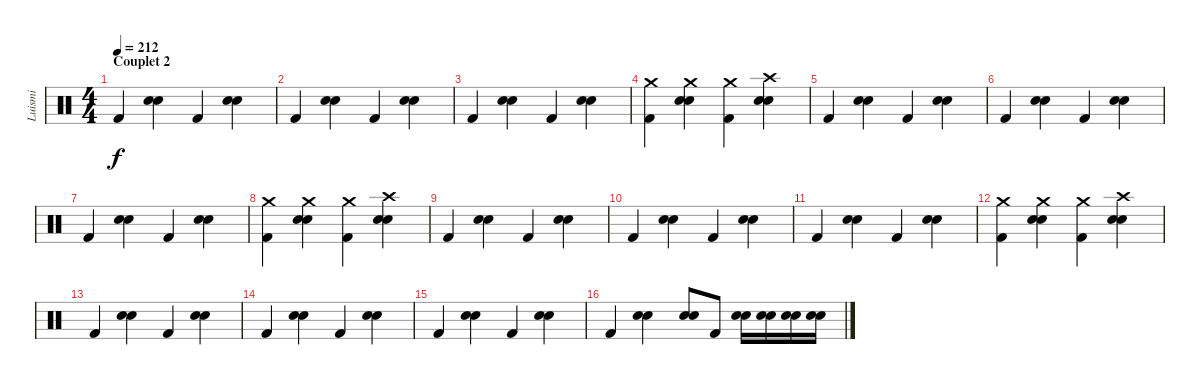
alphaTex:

\track ("Luismi" "Luismi") {instrument percussion}
\staff {score}
\articulation defaults
\ts (4 4)
\section ("" "Couplet 2")
\tempo 212
\clef neutral
\ks c "Kick (hit) 2".4{dy f}
("Electric Snare (hit)" "Snare (hit) 2").4 "Kick (hit) 2".4 ("Electric Snare (hit)" "Snare (hit) 2").4 |
"Kick (hit) 2".4 ("Electric Snare (hit)" "Snare (hit) 2").4 "Kick (hit) 2".4 ("Electric Snare (hit)" "Snare (hit) 2").4 |
"Kick (hit) 2".4 ("Electric Snare (hit)" "Snare (hit) 2").4 "Kick (hit) 2".4 ("Electric Snare (hit)" "Snare (hit) 2").4 |
("Crash medium (hit)" "Kick (hit) 2").4 ("Crash medium (hit)" "Electric Snare (hit)" "Snare (hit) 2").4 ("Crash medium (hit)" "Kick (hit) 2").4 ("Crash high (hit)" "Electric Snare (hit)" "Snare (hit) 2").4 |
"Kick (hit) 2".4 ("Electric Snare (hit)" "Snare (hit) 2").4 "Kick (hit) 2".4 ("Electric Snare (hit)" "Snare (hit) 2").4 |
"Kick (hit) 2".4 ("Electric Snare (hit)" "Snare (hit) 2").4 "Kick (hit) 2".4 ("Electric Snare (hit)" "Snare (hit) 2").4 |
"Kick (hit) 2".4 ("Electric Snare (hit)" "Snare (hit) 2").4 "Kick (hit) 2".4 ("Electric Snare (hit)" "Snare (hit) 2").4 |
("Crash medium (hit)" "Kick (hit) 2").4 ("Crash medium (hit)" "Electric Snare (hit)" "Snare (hit) 2").4 ("Crash medium (hit)" "Kick (hit) 2").4 ("Crash high (hit)" "Electric Snare (hit)" "Snare (hit) 2").4 |
"Kick (hit) 2".4 ("Electric Snare (hit)" "Snare (hit) 2").4 "Kick (hit) 2".4 ("Electric Snare (hit)" "Snare (hit) 2").4 |
"Kick (hit) 2".4 ("Electric Snare (hit)" "Snare (hit) 2").4 "Kick (hit) 2".4 ("Electric Snare (hit)" "Snare (hit) 2").4 |
"Kick (hit) 2".4 ("Electric Snare (hit)" "Snare (hit) 2").4 "Kick (hit) 2".4 ("Electric Snare (hit)" "Snare (hit) 2").4 |
("Crash medium (hit)" "Kick (hit) 2").4 ("Crash medium (hit)" "Electric Snare (hit)" "Snare (hit) 2").4 ("Crash medium (hit)" "Kick (hit) 2").4 ("Crash high (hit)" "Electric Snare (hit)" "Snare (hit) 2").4 |
"Kick (hit) 2".4 ("Electric Snare (hit)" "Snare (hit) 2").4 "Kick (hit) 2".4 ("Electric Snare (hit)" "Snare (hit) 2").4 |
"Kick (hit) 2".4 ("Electric Snare (hit)" "Snare (hit) 2").4 "Kick (hit) 2".4 ("Electric Snare (hit)" "Snare (hit) 2").4 |
"Kick (hit) 2".4 ("Electric Snare (hit)" "Snare (hit) 2").4 "Kick (hit) 2".4 ("Electric Snare (hit)" "Snare (hit) 2").4 |
"Kick (hit) 2".4 ("Electric Snare (hit)" "Snare (hit) 2").4 ("Electric Snare (hit)" "Snare (hit) 2").8 "Kick (hit) 2".8 ("Electric Snare (hit)" "Snare (hit) 2").16 ("Electric Snare (hit)" "Snare (hit) 2").16 ("Electric Snare (hit)" "Snare (hit) 2").16 ("Electric Snare (hit)" "Snare (hit) 2").16
